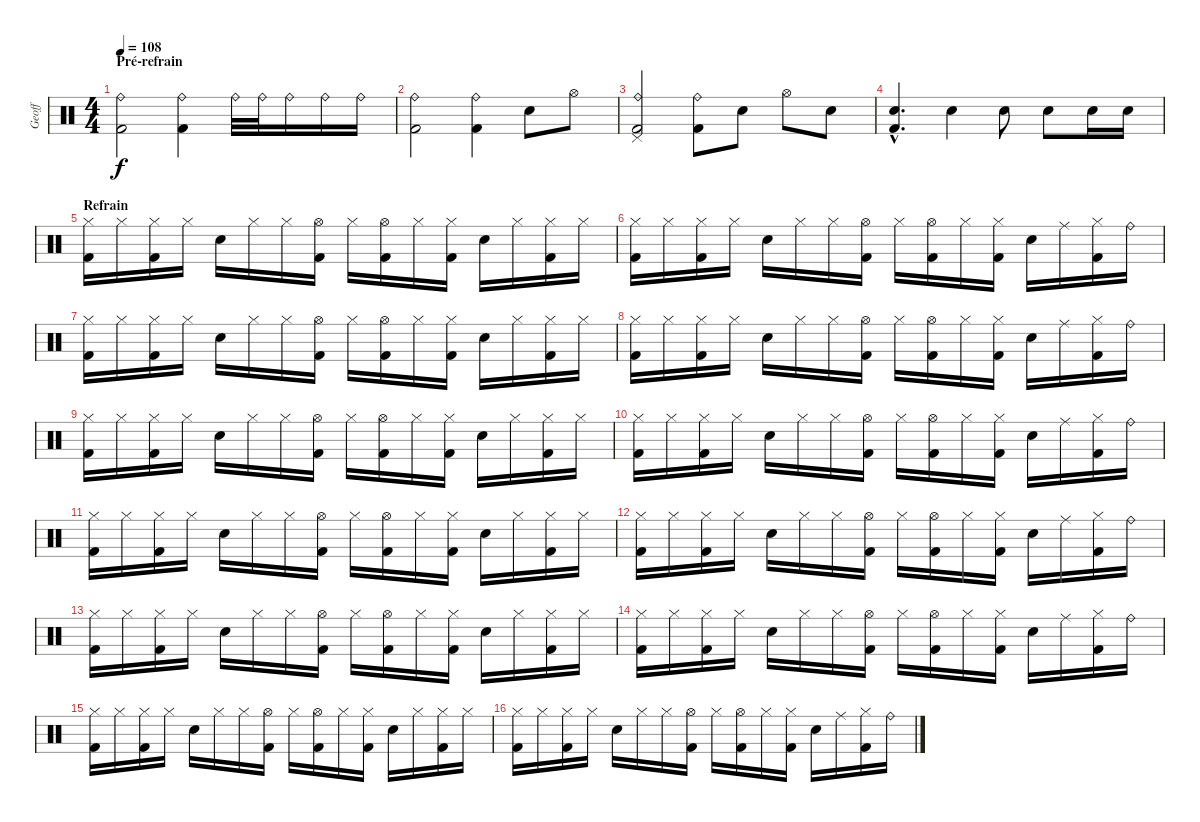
\track ("Geoff" "Geoff") {instrument percussion}
\staff {score}
\articulation defaults
\ts (4 4)
\section ("" "Pré-refrain")
\tempo 108
\clef neutral
\ks c
("Ride (bell)" "Kick (hit) 2").2{dy f} ("Ride (bell)" "Kick (hit) 2").4 "Ride (bell)".32 "Ride (bell)".32 "Ride (bell)".16 "Ride (bell)".16 "Ride (bell)".16 |
("Ride (bell)" "Kick (hit) 2").2 ("Ride (bell)" "Kick (hit) 2").4 "Electric Snare (hit)".8 "Hi-Hat (open)".8 |
("Ride (bell)" "Pedal Hi-Hat (hit)" "Kick (hit) 2").2 ("Ride (bell)" "Kick (hit) 2").8 "Electric Snare (hit)".8 "Hi-Hat (open)".8 "Electric Snare (hit)".8 |
("Electric Snare (hit)"{hac} "Kick (hit) 2"{hac}).4{d} "Electric Snare (hit)".4 "Electric Snare (hit)".8 "Electric Snare (hit)".8 "Electric Snare (hit)".16 "Electric Snare (hit)".16 |
\section ("" "Refrain")
("Hi-Hat (closed)" "Kick (hit) 2").16 "Hi-Hat (closed)".16 ("Hi-Hat (closed)" "Kick (hit) 2").16 "Hi-Hat (closed)".16 "Electric Snare (hit)".16 "Hi-Hat (closed)".16 "Hi-Hat (closed)".16 ("Hi-Hat (open)" "Kick (hit) 2").16 "Hi-Hat (closed)".16 ("Hi-Hat (open)" "Kick (hit) 2").16 "Hi-Hat (closed)".16 ("Hi-Hat (closed)" "Kick (hit) 2").16 "Electric Snare (hit)".16 "Hi-Hat (closed)".16 ("Hi-Hat (closed)" "Kick (hit) 2").16 "Hi-Hat (closed)".16 |
("Hi-Hat (closed)" "Kick (hit) 2").16 "Hi-Hat (closed)".16 ("Hi-Hat (closed)" "Kick (hit) 2").16 "Hi-Hat (closed)".16 "Electric Snare (hit)".16 "Hi-Hat (closed)".16 "Hi-Hat (closed)".16 ("Hi-Hat (open)" "Kick (hit) 2").16 "Hi-Hat (closed)".16 ("Hi-Hat (open)" "Kick (hit) 2").16 "Hi-Hat (closed)".16 ("Hi-Hat (closed)" "Kick (hit) 2").16 "Electric Snare (hit)".16 "Ride (middle)".16 ("Hi-Hat (closed)" "Kick (hit) 2").16 "Ride (bell)".16 |
("Hi-Hat (closed)" "Kick (hit) 2").16 "Hi-Hat (closed)".16 ("Hi-Hat (closed)" "Kick (hit) 2").16 "Hi-Hat (closed)".16 "Electric Snare (hit)".16 "Hi-Hat (closed)".16 "Hi-Hat (closed)".16 ("Hi-Hat (open)" "Kick (hit) 2").16 "Hi-Hat (closed)".16 ("Hi-Hat (open)" "Kick (hit) 2").16 "Hi-Hat (closed)".16 ("Hi-Hat (closed)" "Kick (hit) 2").16 "Electric Snare (hit)".16 "Hi-Hat (closed)".16 ("Hi-Hat (closed)" "Kick (hit) 2").16 "Hi-Hat (closed)".16 |
("Hi-Hat (closed)" "Kick (hit) 2").16 "Hi-Hat (closed)".16 ("Hi-Hat (closed)" "Kick (hit) 2").16 "Hi-Hat (closed)".16 "Electric Snare (hit)".16 "Hi-Hat (closed)".16 "Hi-Hat (closed)".16 ("Hi-Hat (open)" "Kick (hit) 2").16 "Hi-Hat (closed)".16 ("Hi-Hat (open)" "Kick (hit) 2").16 "Hi-Hat (closed)".16 ("Hi-Hat (closed)" "Kick (hit) 2").16 "Electric Snare (hit)".16 "Ride (middle)".16 ("Hi-Hat (closed)" "Kick (hit) 2").16 "Ride (bell)".16 |
("Hi-Hat (closed)" "Kick (hit) 2").16 "Hi-Hat (closed)".16 ("Hi-Hat (closed)" "Kick (hit) 2").16 "Hi-Hat (closed)".16 "Electric Snare (hit)".16 "Hi-Hat (closed)".16 "Hi-Hat (closed)".16 ("Hi-Hat (open)" "Kick (hit) 2").16 "Hi-Hat (closed)".16 ("Hi-Hat (open)" "Kick (hit) 2").16 "Hi-Hat (closed)".16 ("Hi-Hat (closed)" "Kick (hit) 2").16 "Electric Snare (hit)".16 "Hi-Hat (closed)".16 ("Hi-Hat (closed)" "Kick (hit) 2").16 "Hi-Hat (closed)".16 |
("Hi-Hat (closed)" "Kick (hit) 2").16 "Hi-Hat (closed)".16 ("Hi-Hat (closed)" "Kick (hit) 2").16 "Hi-Hat (closed)".16 "Electric Snare (hit)".16 "Hi-Hat (closed)".16 "Hi-Hat (closed)".16 ("Hi-Hat (open)" "Kick (hit) 2").16 "Hi-Hat (closed)".16 ("Hi-Hat (open)" "Kick (hit) 2").16 "Hi-Hat (closed)".16 ("Hi-Hat (closed)" "Kick (hit) 2").16 "Electric Snare (hit)".16 "Ride (middle)".16 ("Hi-Hat (closed)" "Kick (hit) 2").16 "Ride (bell)".16 |
("Hi-Hat (closed)" "Kick (hit) 2").16 "Hi-Hat (closed)".16 ("Hi-Hat (closed)" "Kick (hit) 2").16 "Hi-Hat (closed)".16 "Electric Snare (hit)".16 "Hi-Hat (closed)".16 "Hi-Hat (closed)".16 ("Hi-Hat (open)" "Kick (hit) 2").16 "Hi-Hat (closed)".16 ("Hi-Hat (open)" "Kick (hit) 2").16 "Hi-Hat (closed)".16 ("Hi-Hat (closed)" "Kick (hit) 2").16 "Electric Snare (hit)".16 "Hi-Hat (closed)".16 ("Hi-Hat (closed)" "Kick (hit) 2").16 "Hi-Hat (closed)".16 |
("Hi-Hat (closed)" "Kick (hit) 2").16 "Hi-Hat (closed)".16 ("Hi-Hat (closed)" "Kick (hit) 2").16 "Hi-Hat (closed)".16 "Electric Snare (hit)".16 "Hi-Hat (closed)".16 "Hi-Hat (closed)".16 ("Hi-Hat (open)" "Kick (hit) 2").16 "Hi-Hat (closed)".16 ("Hi-Hat (open)" "Kick (hit) 2").16 "Hi-Hat (closed)".16 ("Hi-Hat (closed)" "Kick (hit) 2").16 "Electric Snare (hit)".16 "Ride (middle)".16 ("Hi-Hat (closed)" "Kick (hit) 2").16 "Ride (bell)".16 |
("Hi-Hat (closed)" "Kick (hit) 2").16 "Hi-Hat (closed)".16 ("Hi-Hat (closed)" "Kick (hit) 2").16 "Hi-Hat (closed)".16 "Electric Snare (hit)".16 "Hi-Hat (closed)".16 "Hi-Hat (closed)".16 ("Hi-Hat (open)" "Kick (hit) 2").16 "Hi-Hat (closed)".16 ("Hi-Hat (open)" "Kick (hit) 2").16 "Hi-Hat (closed)".16 ("Hi-Hat (closed)" "Kick (hit) 2").16 "Electric Snare (hit)".16 "Hi-Hat (closed)".16 ("Hi-Hat (closed)" "Kick (hit) 2").16 "Hi-Hat (closed)".16 |
("Hi-Hat (closed)" "Kick (hit) 2").16 "Hi-Hat (closed)".16 ("Hi-Hat (closed)" "Kick (hit) 2").16 "Hi-Hat (closed)".16 "Electric Snare (hit)".16 "Hi-Hat (closed)".16 "Hi-Hat (closed)".16 ("Hi-Hat (open)" "Kick (hit) 2").16 "Hi-Hat (closed)".16 ("Hi-Hat (open)" "Kick (hit) 2").16 "Hi-Hat (closed)".16 ("Hi-Hat (closed)" "Kick (hit) 2").16 "Electric Snare (hit)".16 "Ride (middle)".16 ("Hi-Hat (closed)" "Kick (hit) 2").16 "Ride (bell)".16 |
("Hi-Hat (closed)" "Kick (hit) 2").16 "Hi-Hat (closed)".16 ("Hi-Hat (closed)" "Kick (hit) 2").16 "Hi-Hat (closed)".16 "Electric Snare (hit)".16 "Hi-Hat (closed)".16 "Hi-Hat (closed)".16 ("Hi-Hat (open)" "Kick (hit) 2").16 "Hi-Hat (closed)".16 ("Hi-Hat (open)" "Kick (hit) 2").16 "Hi-Hat (closed)".16 ("Hi-Hat (closed)" "Kick (hit) 2").16 "Electric Snare (hit)".16 "Hi-Hat (closed)".16 ("Hi-Hat (closed)" "Kick (hit) 2").16 "Hi-Hat (closed)".16 |
("Hi-Hat (closed)" "Kick (hit) 2").16 "Hi-Hat (closed)".16 ("Hi-Hat (closed)" "Kick (hit) 2").16 "Hi-Hat (closed)".16 "Electric Snare (hit)".16 "Hi-Hat (closed)".16 "Hi-Hat (closed)".16 ("Hi-Hat (open)" "Kick (hit) 2").16 "Hi-Hat (closed)".16 ("Hi-Hat (open)" "Kick (hit) 2").16 "Hi-Hat (closed)".16 ("Hi-Hat (closed)" "Kick (hit) 2").16 "Electric Snare (hit)".16 "Ride (middle)".16 ("Hi-Hat (closed)" "Kick (hit) 2").16 "Ride (bell)".16
